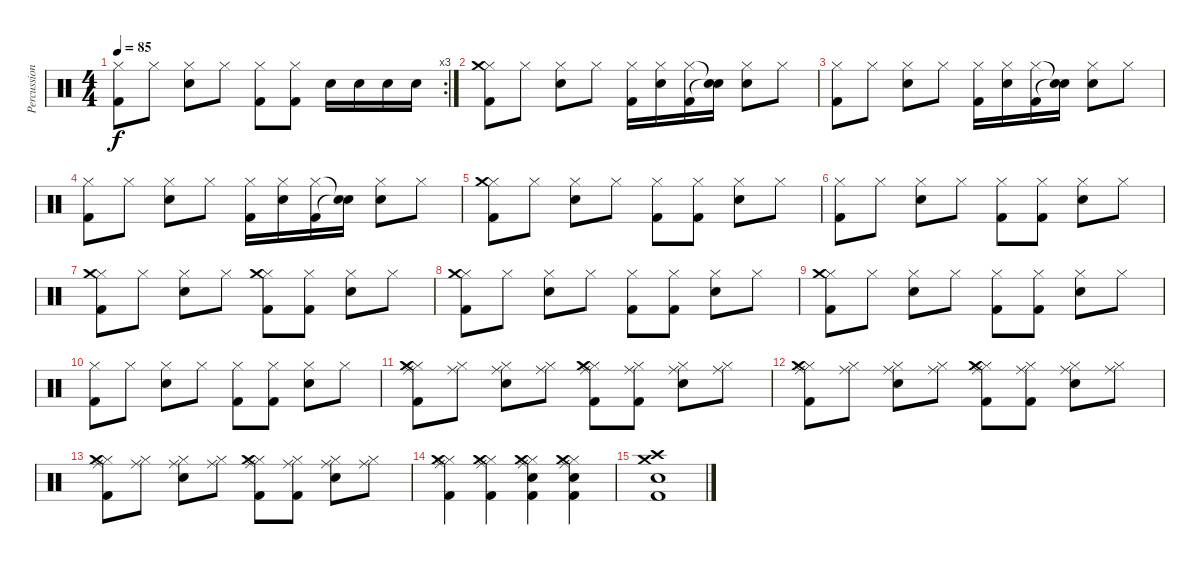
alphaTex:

\track ("Percussion" "Percussion") {instrument percussion}
\staff {score}
\articulation defaults
\rc 3
\ts (4 4)
\tempo 85
\clef neutral
\ks c
("Hi-Hat (closed)" "Kick (hit) 2").8{dy f} "Hi-Hat (closed)".8 ("Hi-Hat (closed)" "Snare (hit) 2").8 "Hi-Hat (closed)".8 ("Hi-Hat (closed)" "Kick (hit) 2").8 ("Hi-Hat (closed)" "Kick (hit) 2").8 "Snare (hit) 2".16 "Snare (hit) 2".16 "Snare (hit) 2".16 "Snare (hit) 2".16 |
("Hi-Hat (closed)" "Crash medium (hit)" "Kick (hit) 2").8 "Hi-Hat (closed)".8 ("Hi-Hat (closed)" "Snare (hit) 2").8 "Hi-Hat (closed)".8 ("Hi-Hat (closed)" "Kick (hit) 2").16 ("Hi-Hat (closed)" "Snare (hit) 2").16 ("Hi-Hat (closed)" "Kick (hit) 2").16 ("Snare (hit)"{t} "Snare (hit)"{t}).16 ("Hi-Hat (closed)" "Snare (hit) 2").8 "Hi-Hat (closed)".8 |
("Hi-Hat (closed)" "Kick (hit) 2").8 "Hi-Hat (closed)".8 ("Hi-Hat (closed)" "Snare (hit) 2").8 "Hi-Hat (closed)".8 ("Hi-Hat (closed)" "Kick (hit) 2").16 ("Hi-Hat (closed)" "Snare (hit) 2").16 ("Hi-Hat (closed)" "Kick (hit) 2").16 ("Snare (hit)"{t} "Snare (hit)"{t}).16 ("Hi-Hat (closed)" "Snare (hit) 2").8 "Hi-Hat (closed)".8 |
("Hi-Hat (closed)" "Kick (hit) 2").8 "Hi-Hat (closed)".8 ("Hi-Hat (closed)" "Snare (hit) 2").8 "Hi-Hat (closed)".8 ("Hi-Hat (closed)" "Kick (hit) 2").16 ("Hi-Hat (closed)" "Snare (hit) 2").16 ("Hi-Hat (closed)" "Kick (hit) 2").16 ("Snare (hit)"{t} "Snare (hit)"{t}).16 ("Hi-Hat (closed)" "Snare (hit) 2").8 "Hi-Hat (closed)".8 |
("Hi-Hat (closed)" "Crash medium (hit)" "Kick (hit) 2").8 "Hi-Hat (closed)".8 ("Hi-Hat (closed)" "Snare (hit) 2").8 "Hi-Hat (closed)".8 ("Hi-Hat (closed)" "Kick (hit) 2").8 ("Hi-Hat (closed)" "Kick (hit) 2").8 ("Hi-Hat (closed)" "Snare (hit) 2").8 "Hi-Hat (closed)".8 |
("Hi-Hat (closed)" "Kick (hit) 2").8 "Hi-Hat (closed)".8 ("Hi-Hat (closed)" "Snare (hit) 2").8 "Hi-Hat (closed)".8 ("Hi-Hat (closed)" "Kick (hit) 2").8 ("Hi-Hat (closed)" "Kick (hit) 2").8 ("Hi-Hat (closed)" "Snare (hit) 2").8 "Hi-Hat (closed)".8 |
("Hi-Hat (closed)" "Crash medium (hit)" "Kick (hit) 2").8 "Hi-Hat (closed)".8 ("Hi-Hat (closed)" "Snare (hit) 2").8 "Hi-Hat (closed)".8 ("Hi-Hat (closed)" "Crash medium (hit)" "Kick (hit) 2").8 ("Hi-Hat (closed)" "Kick (hit) 2").8 ("Hi-Hat (closed)" "Snare (hit) 2").8 "Hi-Hat (closed)".8 |
("Hi-Hat (closed)" "Crash medium (hit)" "Kick (hit) 2").8 "Hi-Hat (closed)".8 ("Hi-Hat (closed)" "Snare (hit) 2").8 "Hi-Hat (closed)".8 ("Hi-Hat (closed)" "Kick (hit) 2").8 ("Hi-Hat (closed)" "Kick (hit) 2").8 ("Hi-Hat (closed)" "Snare (hit) 2").8 "Hi-Hat (closed)".8 |
("Hi-Hat (closed)" "Crash medium (hit)" "Kick (hit) 2").8 "Hi-Hat (closed)".8 ("Hi-Hat (closed)" "Snare (hit) 2").8 "Hi-Hat (closed)".8 ("Hi-Hat (closed)" "Kick (hit) 2").8 ("Hi-Hat (closed)" "Kick (hit) 2").8 ("Hi-Hat (closed)" "Snare (hit) 2").8 "Hi-Hat (closed)".8 |
("Hi-Hat (closed)" "Kick (hit) 2").8 "Hi-Hat (closed)".8 ("Hi-Hat (closed)" "Snare (hit) 2").8 "Hi-Hat (closed)".8 ("Hi-Hat (closed)" "Kick (hit) 2").8 ("Hi-Hat (closed)" "Kick (hit) 2").8 ("Hi-Hat (closed)" "Snare (hit) 2").8 "Hi-Hat (closed)".8 |
("Hi-Hat (closed)" "Ride (middle)" "Kick (hit) 2" "Crash medium (hit)").8 ("Hi-Hat (closed)" "Ride (middle)").8 ("Hi-Hat (closed)" "Ride (middle)" "Snare (hit) 2").8 ("Hi-Hat (closed)" "Ride (middle)").8 ("Hi-Hat (closed)" "Ride (middle)" "Kick (hit) 2" "Crash medium (hit)").8 ("Hi-Hat (closed)" "Ride (middle)" "Kick (hit) 2").8 ("Hi-Hat (closed)" "Ride (middle)" "Snare (hit) 2").8 ("Hi-Hat (closed)" "Ride (middle)").8 |
("Hi-Hat (closed)" "Ride (middle)" "Kick (hit) 2" "Crash medium (hit)").8 ("Hi-Hat (closed)" "Ride (middle)").8 ("Hi-Hat (closed)" "Ride (middle)" "Snare (hit) 2").8 ("Hi-Hat (closed)" "Ride (middle)").8 ("Hi-Hat (closed)" "Ride (middle)" "Kick (hit) 2" "Crash medium (hit)").8 ("Hi-Hat (closed)" "Ride (middle)" "Kick (hit) 2").8 ("Hi-Hat (closed)" "Ride (middle)" "Snare (hit) 2").8 ("Hi-Hat (closed)" "Ride (middle)").8 |
("Hi-Hat (closed)" "Ride (middle)" "Kick (hit) 2" "Crash medium (hit)").8 ("Hi-Hat (closed)" "Ride (middle)").8 ("Hi-Hat (closed)" "Ride (middle)" "Snare (hit) 2").8 ("Hi-Hat (closed)" "Ride (middle)").8 ("Hi-Hat (closed)" "Ride (middle)" "Kick (hit) 2" "Crash medium (hit)").8 ("Hi-Hat (closed)" "Ride (middle)" "Kick (hit) 2").8 ("Hi-Hat (closed)" "Ride (middle)" "Snare (hit) 2").8 ("Hi-Hat (closed)" "Ride (middle)").8 |
("Hi-Hat (closed)" "Crash medium (hit)" "Ride (middle)" "Kick (hit) 2").4 ("Hi-Hat (closed)" "Crash medium (hit)" "Ride (middle)" "Kick (hit) 2").4 ("Hi-Hat (closed)" "Crash medium (hit)" "Ride (middle)" "Kick (hit) 2" "Snare (hit) 2").4 ("Hi-Hat (closed)" "Crash medium (hit)" "Ride (middle)" "Kick (hit) 2" "Snare (hit) 2").4 |
("Crash medium (hit)" "Crash high (hit)" "Kick (hit) 2" "Snare (hit) 2").1
